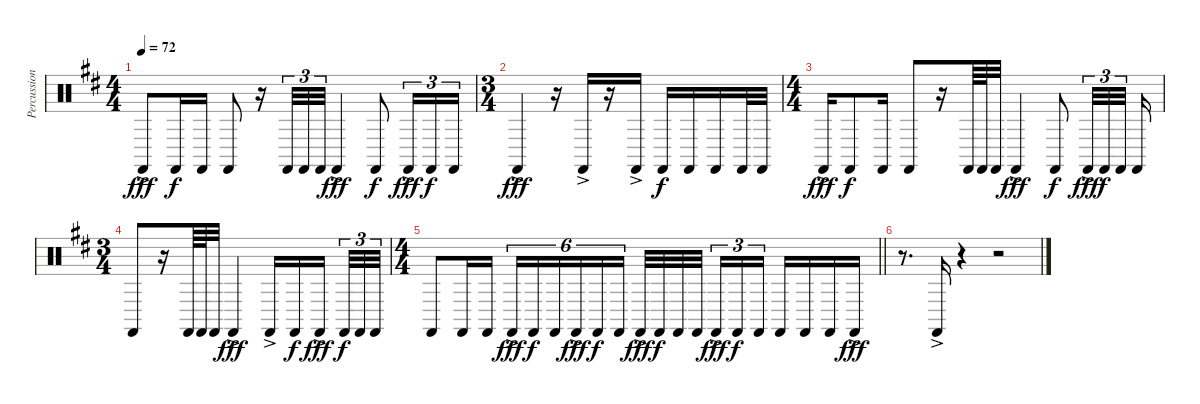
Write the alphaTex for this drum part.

\track ("Percussions" "Percussion") {instrument percussion}
\staff {score}
\articulation defaults
\ts (4 4)
\tempo 72
\clef neutral
\ks bminor "Castanets (hit)"{ac}.8{dy fff} "Castanets (hit)".16{dy f} "Castanets (hit)".16 "Castanets (hit)".8
r.16 "Castanets (hit)".32{tu (3 2)} "Castanets (hit)".32{tu (3 2)} "Castanets (hit)".32{tu (3 2)} "Castanets (hit)"{ac}.4{dy fff} "Castanets (hit)".8{dy f} "Castanets (hit)"{ac}.16{tu (3 2) dy fff} "Castanets (hit)".16{tu (3 2) dy f} "Castanets (hit)".16{tu (3 2)} |
\ts (3 4)
"Castanets (hit)"{ac}.4{dy fff} r.16 "Castanets (hit)"{ac}.16 r.16 "Castanets (hit)"{ac}.16 "Castanets (hit)".16{dy f} "Castanets (hit)".16 "Castanets (hit)".16 "Castanets (hit)".32 "Castanets (hit)".32 |
\ts (4 4)
"Castanets (hit)"{ac}.16{dy fff} "Castanets (hit)".8{dy f} "Castanets (hit)".16 "Castanets (hit)".8 r.16 "Castanets (hit)".64 "Castanets (hit)".64 "Castanets (hit)".32 "Castanets (hit)"{ac}.4{dy fff} "Castanets (hit)".8{dy f} "Castanets (hit)"{ac}.32{tu (3 2) dy fff} "Castanets (hit)".32{tu (3 2) dy f} "Castanets (hit)".32{tu (3 2)} "Castanets (hit)".16 |
\ts (3 4)
"Castanets (hit)".8 r.16 "Castanets (hit)".64 "Castanets (hit)".64 "Castanets (hit)".32 "Castanets (hit)"{ac}.4{dy fff} "Castanets (hit)"{ac}.16 "Castanets (hit)".16{dy f} "Castanets (hit)"{ac}.16{dy fff} "Castanets (hit)".32{tu (3 2) dy f} "Castanets (hit)".32{tu (3 2)} "Castanets (hit)".32{tu (3 2)} |
\ts (4 4)
\barLineRight lightlight "Castanets (hit)".8 "Castanets (hit)".16 "Castanets (hit)".16 "Castanets (hit)"{ac}.16{tu (6 4) dy fff} "Castanets (hit)".16{tu (6 4) dy f} "Castanets (hit)".16{tu (6 4)} "Castanets (hit)"{ac}.16{tu (6 4) dy fff} "Castanets (hit)".16{tu (6 4) dy f} "Castanets (hit)".16{tu (6 4)} "Castanets (hit)"{ac}.32{dy fff} "Castanets (hit)".32{dy f} "Castanets (hit)".32 "Castanets (hit)".32 "Castanets (hit)"{ac}.16{tu (3 2) dy fff} "Castanets (hit)".16{tu (3 2) dy f} "Castanets (hit)".16{tu (3 2)} "Castanets (hit)".16 "Castanets (hit)".16 "Castanets (hit)".16 "Castanets (hit)"{ac}.16{dy fff}
|
r.8{d} "Castanets (hit)"{ac}.16 r.4 r.2
